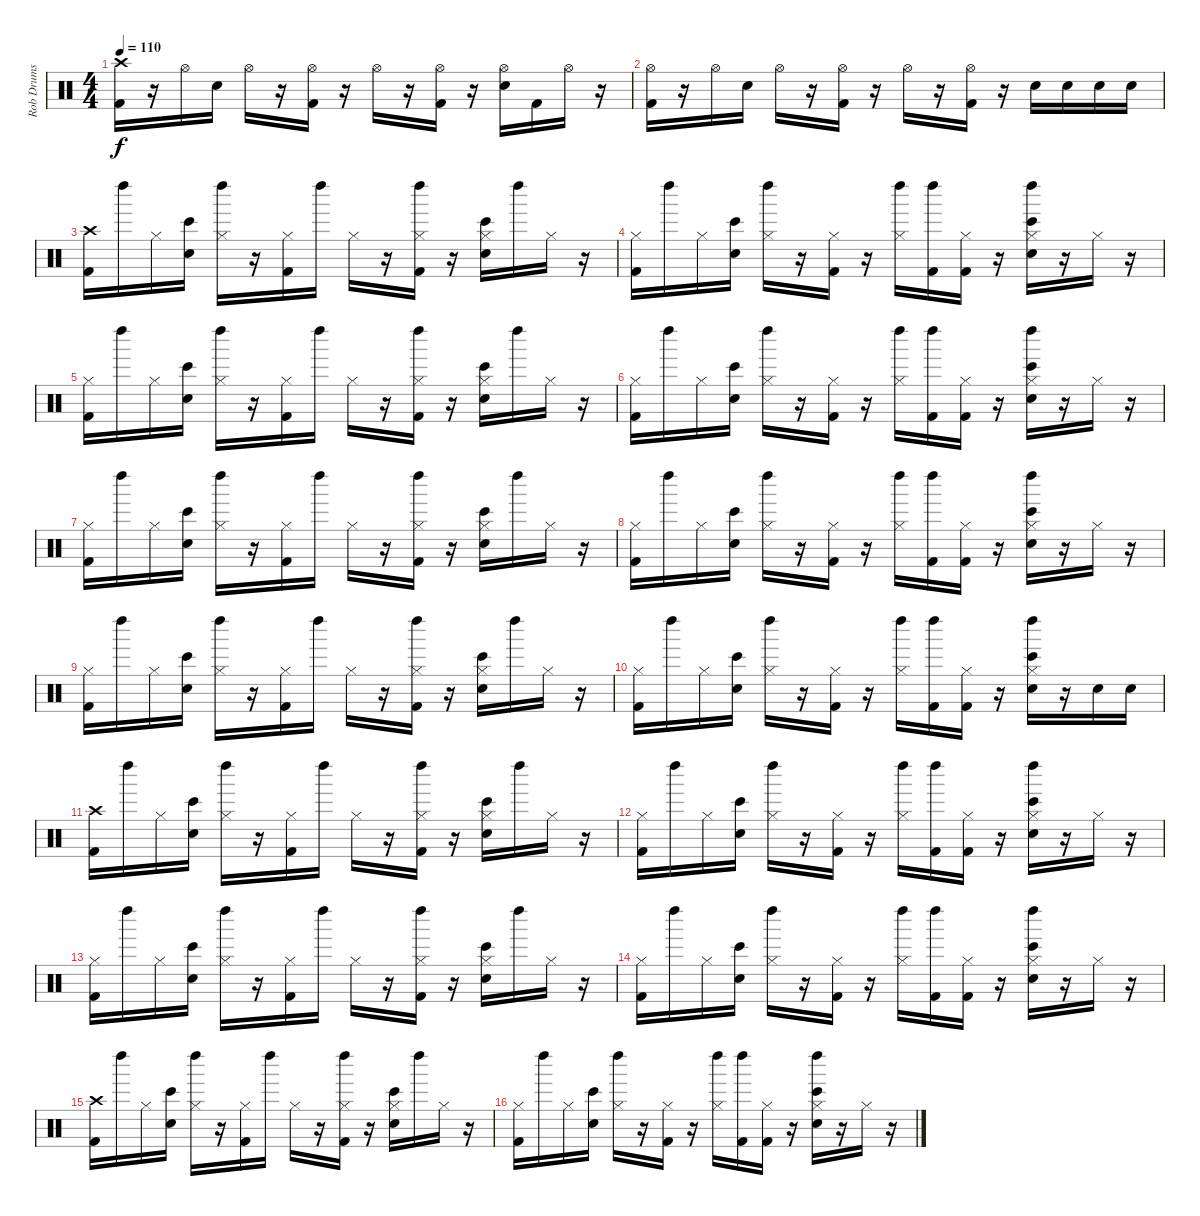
\track ("Rob Drums" "Rob Drums") {instrument percussion}
\staff {score}
\articulation defaults
\ts (4 4)
\tempo 110
\clef neutral
\ks c
("Crash high (hit)" "Kick (hit) 2").16{dy f} r.16 "Hi-Hat (open)".16 "Electric Snare (hit)".16 "Hi-Hat (open)".16 r.16 ("Hi-Hat (open)" "Kick (hit) 2").16 r.16 "Hi-Hat (open)".16 r.16 ("Hi-Hat (open)" "Kick (hit) 2").16 r.16 ("Hi-Hat (open)" "Electric Snare (hit)").16 "Kick (hit) 2".16 "Hi-Hat (open)".16 r.16 |
("Hi-Hat (open)" "Kick (hit) 2").16 r.16 "Hi-Hat (open)".16 "Electric Snare (hit)".16 "Hi-Hat (open)".16 r.16 ("Hi-Hat (open)" "Kick (hit) 2").16 r.16 "Hi-Hat (open)".16 r.16 ("Hi-Hat (open)" "Kick (hit) 2").16 r.16 "Electric Snare (hit)".16 "Electric Snare (hit)".16 "Electric Snare (hit)".16 "Electric Snare (hit)".16 |
("Crash high (hit)" "Kick (hit) 2").16 "Left Maraca (hit)".16 "Hi-Hat (closed)".16 ("Electric Snare (hit)" "Bongo High (hit)").16 ("Hi-Hat (closed)" "Left Maraca (hit)").16 r.16 ("Hi-Hat (closed)" "Kick (hit) 2").16 "Left Maraca (hit)".16 "Hi-Hat (closed)".16 r.16 ("Hi-Hat (closed)" "Left Maraca (hit)" "Kick (hit) 2").16 r.16 ("Hi-Hat (closed)" "Electric Snare (hit)" "Bongo High (hit)").16 "Left Maraca (hit)".16 "Hi-Hat (closed)".16 r.16 |
("Hi-Hat (closed)" "Kick (hit) 2").16 "Left Maraca (hit)".16 "Hi-Hat (closed)".16 ("Electric Snare (hit)" "Bongo High (hit)").16 ("Hi-Hat (closed)" "Left Maraca (hit)").16 r.16 ("Hi-Hat (closed)" "Kick (hit) 2").16 r.16 ("Hi-Hat (closed)" "Left Maraca (hit)").16 ("Left Maraca (hit)" "Kick (hit) 2").16 ("Hi-Hat (closed)" "Kick (hit) 2").16 r.16 ("Hi-Hat (closed)" "Left Maraca (hit)" "Electric Snare (hit)" "Bongo High (hit)").16 r.16 "Hi-Hat (closed)".16 r.16 |
("Hi-Hat (closed)" "Kick (hit) 2").16 "Left Maraca (hit)".16 "Hi-Hat (closed)".16 ("Electric Snare (hit)" "Bongo High (hit)").16 ("Hi-Hat (closed)" "Left Maraca (hit)").16 r.16 ("Hi-Hat (closed)" "Kick (hit) 2").16 "Left Maraca (hit)".16 "Hi-Hat (closed)".16 r.16 ("Hi-Hat (closed)" "Left Maraca (hit)" "Kick (hit) 2").16 r.16 ("Hi-Hat (closed)" "Electric Snare (hit)" "Bongo High (hit)").16 "Left Maraca (hit)".16 "Hi-Hat (closed)".16 r.16 |
("Hi-Hat (closed)" "Kick (hit) 2").16 "Left Maraca (hit)".16 "Hi-Hat (closed)".16 ("Electric Snare (hit)" "Bongo High (hit)").16 ("Hi-Hat (closed)" "Left Maraca (hit)").16 r.16 ("Hi-Hat (closed)" "Kick (hit) 2").16 r.16 ("Hi-Hat (closed)" "Left Maraca (hit)").16 ("Left Maraca (hit)" "Kick (hit) 2").16 ("Hi-Hat (closed)" "Kick (hit) 2").16 r.16 ("Hi-Hat (closed)" "Left Maraca (hit)" "Electric Snare (hit)" "Bongo High (hit)").16 r.16 "Hi-Hat (closed)".16 r.16 |
("Hi-Hat (closed)" "Kick (hit) 2").16 "Left Maraca (hit)".16 "Hi-Hat (closed)".16 ("Electric Snare (hit)" "Bongo High (hit)").16 ("Hi-Hat (closed)" "Left Maraca (hit)").16 r.16 ("Hi-Hat (closed)" "Kick (hit) 2").16 "Left Maraca (hit)".16 "Hi-Hat (closed)".16 r.16 ("Hi-Hat (closed)" "Left Maraca (hit)" "Kick (hit) 2").16 r.16 ("Hi-Hat (closed)" "Electric Snare (hit)" "Bongo High (hit)").16 "Left Maraca (hit)".16 "Hi-Hat (closed)".16 r.16 |
("Hi-Hat (closed)" "Kick (hit) 2").16 "Left Maraca (hit)".16 "Hi-Hat (closed)".16 ("Electric Snare (hit)" "Bongo High (hit)").16 ("Hi-Hat (closed)" "Left Maraca (hit)").16 r.16 ("Hi-Hat (closed)" "Kick (hit) 2").16 r.16 ("Hi-Hat (closed)" "Left Maraca (hit)").16 ("Left Maraca (hit)" "Kick (hit) 2").16 ("Hi-Hat (closed)" "Kick (hit) 2").16 r.16 ("Hi-Hat (closed)" "Left Maraca (hit)" "Electric Snare (hit)" "Bongo High (hit)").16 r.16 "Hi-Hat (closed)".16 r.16 |
("Hi-Hat (closed)" "Kick (hit) 2").16 "Left Maraca (hit)".16 "Hi-Hat (closed)".16 ("Electric Snare (hit)" "Bongo High (hit)").16 ("Hi-Hat (closed)" "Left Maraca (hit)").16 r.16 ("Hi-Hat (closed)" "Kick (hit) 2").16 "Left Maraca (hit)".16 "Hi-Hat (closed)".16 r.16 ("Hi-Hat (closed)" "Left Maraca (hit)" "Kick (hit) 2").16 r.16 ("Hi-Hat (closed)" "Electric Snare (hit)" "Bongo High (hit)").16 "Left Maraca (hit)".16 "Hi-Hat (closed)".16 r.16 |
("Hi-Hat (closed)" "Kick (hit) 2").16 "Left Maraca (hit)".16 "Hi-Hat (closed)".16 ("Electric Snare (hit)" "Bongo High (hit)").16 ("Hi-Hat (closed)" "Left Maraca (hit)").16 r.16 ("Hi-Hat (closed)" "Kick (hit) 2").16 r.16 ("Hi-Hat (closed)" "Left Maraca (hit)").16 ("Left Maraca (hit)" "Kick (hit) 2").16 ("Hi-Hat (closed)" "Kick (hit) 2").16 r.16 ("Hi-Hat (closed)" "Left Maraca (hit)" "Electric Snare (hit)" "Bongo High (hit)").16 r.16 "Electric Snare (hit)".16 "Electric Snare (hit)".16 |
("Crash high (hit)" "Kick (hit) 2").16 "Left Maraca (hit)".16 "Hi-Hat (closed)".16 ("Electric Snare (hit)" "Bongo High (hit)").16 ("Hi-Hat (closed)" "Left Maraca (hit)").16 r.16 ("Hi-Hat (closed)" "Kick (hit) 2").16 "Left Maraca (hit)".16 "Hi-Hat (closed)".16 r.16 ("Hi-Hat (closed)" "Left Maraca (hit)" "Kick (hit) 2").16 r.16 ("Hi-Hat (closed)" "Electric Snare (hit)" "Bongo High (hit)").16 "Left Maraca (hit)".16 "Hi-Hat (closed)".16 r.16 |
("Hi-Hat (closed)" "Kick (hit) 2").16 "Left Maraca (hit)".16 "Hi-Hat (closed)".16 ("Electric Snare (hit)" "Bongo High (hit)").16 ("Hi-Hat (closed)" "Left Maraca (hit)").16 r.16 ("Hi-Hat (closed)" "Kick (hit) 2").16 r.16 ("Hi-Hat (closed)" "Left Maraca (hit)").16 ("Left Maraca (hit)" "Kick (hit) 2").16 ("Hi-Hat (closed)" "Kick (hit) 2").16 r.16 ("Hi-Hat (closed)" "Left Maraca (hit)" "Electric Snare (hit)" "Bongo High (hit)").16 r.16 "Hi-Hat (closed)".16 r.16 |
("Hi-Hat (closed)" "Kick (hit) 2").16 "Left Maraca (hit)".16 "Hi-Hat (closed)".16 ("Electric Snare (hit)" "Bongo High (hit)").16 ("Hi-Hat (closed)" "Left Maraca (hit)").16 r.16 ("Hi-Hat (closed)" "Kick (hit) 2").16 "Left Maraca (hit)".16 "Hi-Hat (closed)".16 r.16 ("Hi-Hat (closed)" "Left Maraca (hit)" "Kick (hit) 2").16 r.16 ("Hi-Hat (closed)" "Electric Snare (hit)" "Bongo High (hit)").16 "Left Maraca (hit)".16 "Hi-Hat (closed)".16 r.16 |
("Hi-Hat (closed)" "Kick (hit) 2").16 "Left Maraca (hit)".16 "Hi-Hat (closed)".16 ("Electric Snare (hit)" "Bongo High (hit)").16 ("Hi-Hat (closed)" "Left Maraca (hit)").16 r.16 ("Hi-Hat (closed)" "Kick (hit) 2").16 r.16 ("Hi-Hat (closed)" "Left Maraca (hit)").16 ("Left Maraca (hit)" "Kick (hit) 2").16 ("Hi-Hat (closed)" "Kick (hit) 2").16 r.16 ("Hi-Hat (closed)" "Left Maraca (hit)" "Electric Snare (hit)" "Bongo High (hit)").16 r.16 "Hi-Hat (closed)".16 r.16 |
("Crash high (hit)" "Kick (hit) 2").16 "Left Maraca (hit)".16 "Hi-Hat (closed)".16 ("Electric Snare (hit)" "Bongo High (hit)").16 ("Hi-Hat (closed)" "Left Maraca (hit)").16 r.16 ("Hi-Hat (closed)" "Kick (hit) 2").16 "Left Maraca (hit)".16 "Hi-Hat (closed)".16 r.16 ("Hi-Hat (closed)" "Left Maraca (hit)" "Kick (hit) 2").16 r.16 ("Hi-Hat (closed)" "Electric Snare (hit)" "Bongo High (hit)").16 "Left Maraca (hit)".16 "Hi-Hat (closed)".16 r.16 |
("Hi-Hat (closed)" "Kick (hit) 2").16 "Left Maraca (hit)".16 "Hi-Hat (closed)".16 ("Electric Snare (hit)" "Bongo High (hit)").16 ("Hi-Hat (closed)" "Left Maraca (hit)").16 r.16 ("Hi-Hat (closed)" "Kick (hit) 2").16 r.16 ("Hi-Hat (closed)" "Left Maraca (hit)").16 ("Left Maraca (hit)" "Kick (hit) 2").16 ("Hi-Hat (closed)" "Kick (hit) 2").16 r.16 ("Hi-Hat (closed)" "Left Maraca (hit)" "Electric Snare (hit)" "Bongo High (hit)").16 r.16 "Hi-Hat (closed)".16 r.16
